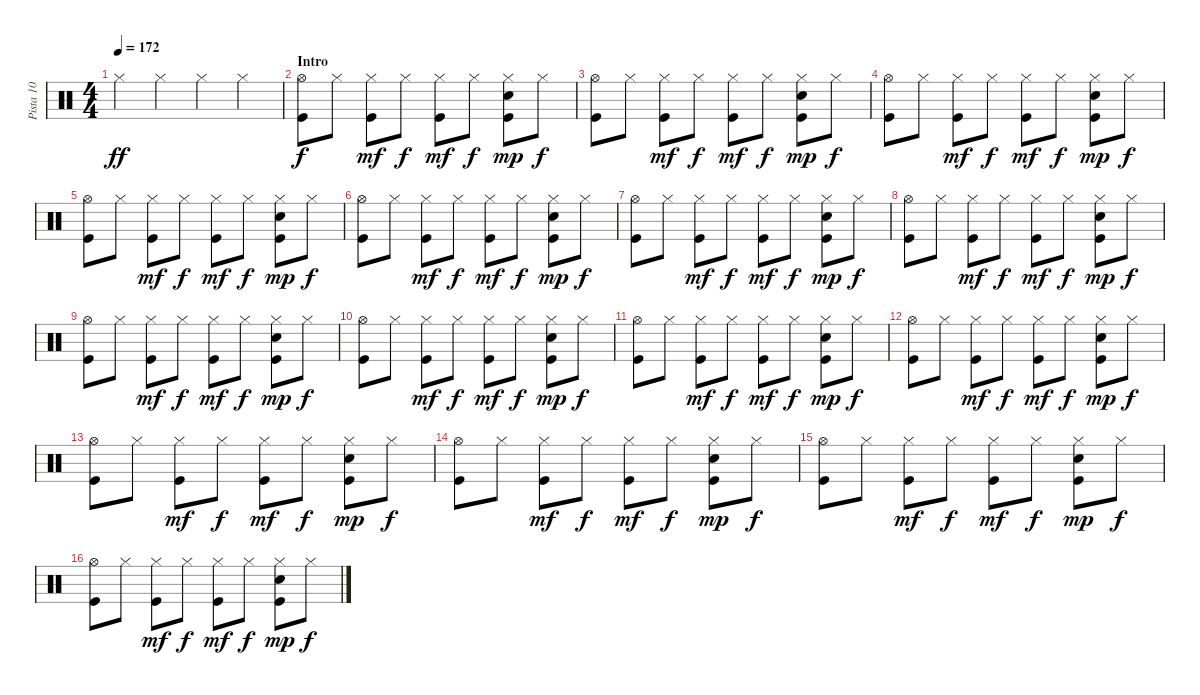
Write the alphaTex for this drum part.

\track ("Pista 10" "Pista 10") {instrument percussion}
\staff {score}
\articulation defaults
\ts (4 4)
\tempo 172
\clef neutral
\ks c "Hi-Hat (closed)".4{dy ff} "Hi-Hat (closed)".4 "Hi-Hat (closed)".4 "Hi-Hat (closed)".4
|
\section ("" "Intro")
("Kick (hit)" "Hi-Hat (open)").8{dy f} "Hi-Hat (closed)".8 ("Hi-Hat (closed)" "Kick (hit)").8{dy mf} "Hi-Hat (closed)".8{dy f} ("Hi-Hat (closed)" "Kick (hit)").8{dy mf} "Hi-Hat (closed)".8{dy f} ("Hi-Hat (closed)" "Kick (hit)" "Snare (hit) 2").8{dy mp} "Hi-Hat (closed)".8{dy f} |
("Hi-Hat (open)" "Kick (hit)").8 "Hi-Hat (closed)".8 ("Kick (hit)" "Hi-Hat (closed)").8{dy mf} "Hi-Hat (closed)".8{dy f} ("Kick (hit)" "Hi-Hat (closed)").8{dy mf} "Hi-Hat (closed)".8{dy f} ("Snare (hit) 2" "Hi-Hat (closed)" "Kick (hit)").8{dy mp} "Hi-Hat (closed)".8{dy f} |
("Kick (hit)" "Hi-Hat (open)").8 "Hi-Hat (closed)".8 ("Hi-Hat (closed)" "Kick (hit)").8{dy mf} "Hi-Hat (closed)".8{dy f} ("Hi-Hat (closed)" "Kick (hit)").8{dy mf} "Hi-Hat (closed)".8{dy f} ("Hi-Hat (closed)" "Kick (hit)" "Snare (hit) 2").8{dy mp} "Hi-Hat (closed)".8{dy f} |
("Hi-Hat (open)" "Kick (hit)").8 "Hi-Hat (closed)".8 ("Kick (hit)" "Hi-Hat (closed)").8{dy mf} "Hi-Hat (closed)".8{dy f} ("Kick (hit)" "Hi-Hat (closed)").8{dy mf} "Hi-Hat (closed)".8{dy f} ("Snare (hit) 2" "Hi-Hat (closed)" "Kick (hit)").8{dy mp} "Hi-Hat (closed)".8{dy f} |
("Kick (hit)" "Hi-Hat (open)").8 "Hi-Hat (closed)".8 ("Hi-Hat (closed)" "Kick (hit)").8{dy mf} "Hi-Hat (closed)".8{dy f} ("Hi-Hat (closed)" "Kick (hit)").8{dy mf} "Hi-Hat (closed)".8{dy f} ("Hi-Hat (closed)" "Kick (hit)" "Snare (hit) 2").8{dy mp} "Hi-Hat (closed)".8{dy f} |
("Hi-Hat (open)" "Kick (hit)").8 "Hi-Hat (closed)".8 ("Kick (hit)" "Hi-Hat (closed)").8{dy mf} "Hi-Hat (closed)".8{dy f} ("Kick (hit)" "Hi-Hat (closed)").8{dy mf} "Hi-Hat (closed)".8{dy f} ("Snare (hit) 2" "Hi-Hat (closed)" "Kick (hit)").8{dy mp} "Hi-Hat (closed)".8{dy f} |
("Kick (hit)" "Hi-Hat (open)").8 "Hi-Hat (closed)".8 ("Hi-Hat (closed)" "Kick (hit)").8{dy mf} "Hi-Hat (closed)".8{dy f} ("Hi-Hat (closed)" "Kick (hit)").8{dy mf} "Hi-Hat (closed)".8{dy f} ("Hi-Hat (closed)" "Kick (hit)" "Snare (hit) 2").8{dy mp} "Hi-Hat (closed)".8{dy f} |
("Hi-Hat (open)" "Kick (hit)").8 "Hi-Hat (closed)".8 ("Kick (hit)" "Hi-Hat (closed)").8{dy mf} "Hi-Hat (closed)".8{dy f} ("Kick (hit)" "Hi-Hat (closed)").8{dy mf} "Hi-Hat (closed)".8{dy f} ("Snare (hit) 2" "Hi-Hat (closed)" "Kick (hit)").8{dy mp} "Hi-Hat (closed)".8{dy f} |
("Kick (hit)" "Hi-Hat (open)").8 "Hi-Hat (closed)".8 ("Hi-Hat (closed)" "Kick (hit)").8{dy mf} "Hi-Hat (closed)".8{dy f} ("Hi-Hat (closed)" "Kick (hit)").8{dy mf} "Hi-Hat (closed)".8{dy f} ("Hi-Hat (closed)" "Kick (hit)" "Snare (hit) 2").8{dy mp} "Hi-Hat (closed)".8{dy f} |
("Hi-Hat (open)" "Kick (hit)").8 "Hi-Hat (closed)".8 ("Kick (hit)" "Hi-Hat (closed)").8{dy mf} "Hi-Hat (closed)".8{dy f} ("Kick (hit)" "Hi-Hat (closed)").8{dy mf} "Hi-Hat (closed)".8{dy f} ("Snare (hit) 2" "Hi-Hat (closed)" "Kick (hit)").8{dy mp} "Hi-Hat (closed)".8{dy f} |
("Kick (hit)" "Hi-Hat (open)").8 "Hi-Hat (closed)".8 ("Hi-Hat (closed)" "Kick (hit)").8{dy mf} "Hi-Hat (closed)".8{dy f} ("Hi-Hat (closed)" "Kick (hit)").8{dy mf} "Hi-Hat (closed)".8{dy f} ("Hi-Hat (closed)" "Kick (hit)" "Snare (hit) 2").8{dy mp} "Hi-Hat (closed)".8{dy f} |
("Hi-Hat (open)" "Kick (hit)").8 "Hi-Hat (closed)".8 ("Kick (hit)" "Hi-Hat (closed)").8{dy mf} "Hi-Hat (closed)".8{dy f} ("Kick (hit)" "Hi-Hat (closed)").8{dy mf} "Hi-Hat (closed)".8{dy f} ("Snare (hit) 2" "Hi-Hat (closed)" "Kick (hit)").8{dy mp} "Hi-Hat (closed)".8{dy f} |
("Kick (hit)" "Hi-Hat (open)").8 "Hi-Hat (closed)".8 ("Hi-Hat (closed)" "Kick (hit)").8{dy mf} "Hi-Hat (closed)".8{dy f} ("Hi-Hat (closed)" "Kick (hit)").8{dy mf} "Hi-Hat (closed)".8{dy f} ("Hi-Hat (closed)" "Kick (hit)" "Snare (hit) 2").8{dy mp} "Hi-Hat (closed)".8{dy f} |
("Hi-Hat (open)" "Kick (hit)").8 "Hi-Hat (closed)".8 ("Kick (hit)" "Hi-Hat (closed)").8{dy mf} "Hi-Hat (closed)".8{dy f} ("Kick (hit)" "Hi-Hat (closed)").8{dy mf} "Hi-Hat (closed)".8{dy f} ("Snare (hit) 2" "Hi-Hat (closed)" "Kick (hit)").8{dy mp} "Hi-Hat (closed)".8{dy f} |
("Kick (hit)" "Hi-Hat (open)").8 "Hi-Hat (closed)".8 ("Hi-Hat (closed)" "Kick (hit)").8{dy mf} "Hi-Hat (closed)".8{dy f} ("Hi-Hat (closed)" "Kick (hit)").8{dy mf} "Hi-Hat (closed)".8{dy f} ("Hi-Hat (closed)" "Kick (hit)" "Snare (hit) 2").8{dy mp} "Hi-Hat (closed)".8{dy f}
